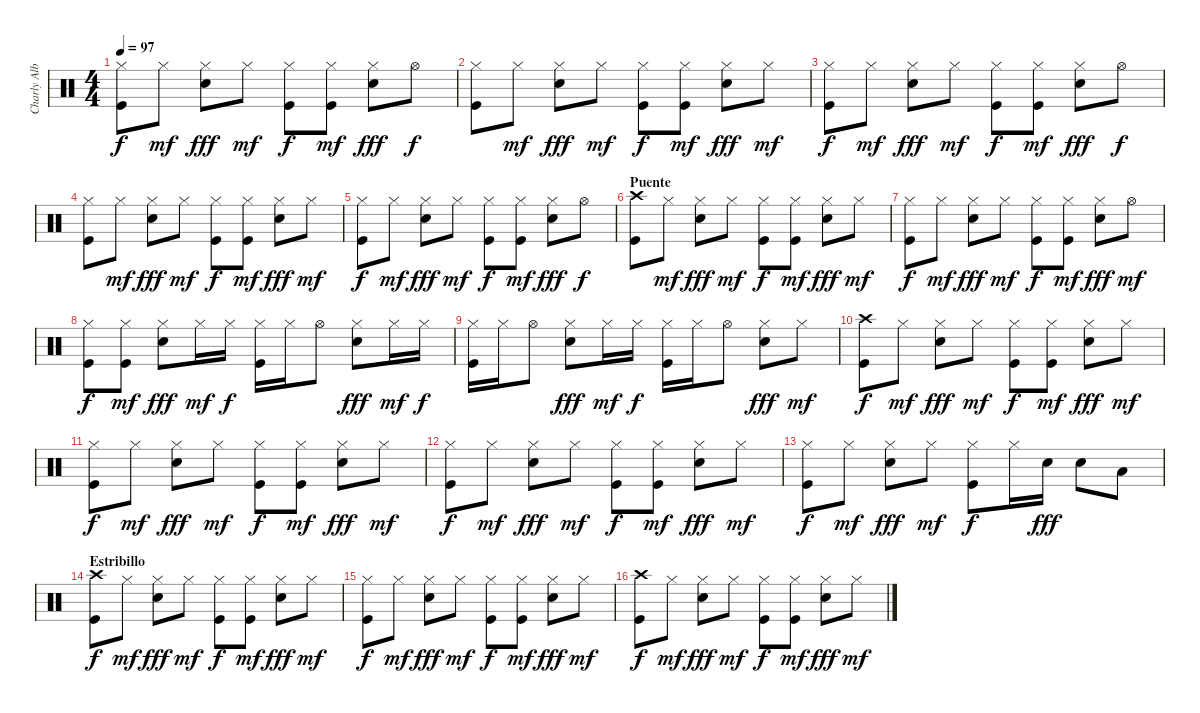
\track ("Charly Alberti" "Charly Alb") {instrument percussion}
\staff {score}
\articulation defaults
\ts (4 4)
\tempo 97
\clef neutral
\ks c
("Kick (hit)" "Hi-Hat (closed)").8{dy f} "Hi-Hat (closed)".8{dy mf} ("Snare (hit) 2" "Hi-Hat (closed)").8{dy fff} "Hi-Hat (closed)".8{dy mf} ("Kick (hit)" "Hi-Hat (closed)").8{dy f} ("Kick (hit)" "Hi-Hat (closed)").8{dy mf} ("Snare (hit) 2" "Hi-Hat (closed)").8{dy fff} "Hi-Hat (open)".8{dy f} |
("Kick (hit)" "Hi-Hat (closed)").8 "Hi-Hat (closed)".8{dy mf} ("Snare (hit) 2" "Hi-Hat (closed)").8{dy fff} "Hi-Hat (closed)".8{dy mf} ("Kick (hit)" "Hi-Hat (closed)").8{dy f} ("Kick (hit)" "Hi-Hat (closed)").8{dy mf} ("Snare (hit) 2" "Hi-Hat (closed)").8{dy fff} "Hi-Hat (closed)".8{dy mf} |
("Kick (hit)" "Hi-Hat (closed)").8{dy f} "Hi-Hat (closed)".8{dy mf} ("Snare (hit) 2" "Hi-Hat (closed)").8{dy fff} "Hi-Hat (closed)".8{dy mf} ("Kick (hit)" "Hi-Hat (closed)").8{dy f} ("Kick (hit)" "Hi-Hat (closed)").8{dy mf} ("Snare (hit) 2" "Hi-Hat (closed)").8{dy fff} "Hi-Hat (open)".8{dy f} |
("Kick (hit)" "Hi-Hat (closed)").8 "Hi-Hat (closed)".8{dy mf} ("Snare (hit) 2" "Hi-Hat (closed)").8{dy fff} "Hi-Hat (closed)".8{dy mf} ("Kick (hit)" "Hi-Hat (closed)").8{dy f} ("Kick (hit)" "Hi-Hat (closed)").8{dy mf} ("Snare (hit) 2" "Hi-Hat (closed)").8{dy fff} "Hi-Hat (closed)".8{dy mf} |
("Kick (hit)" "Hi-Hat (closed)").8{dy f} "Hi-Hat (closed)".8{dy mf} ("Snare (hit) 2" "Hi-Hat (closed)").8{dy fff} "Hi-Hat (closed)".8{dy mf} ("Kick (hit)" "Hi-Hat (closed)").8{dy f} ("Kick (hit)" "Hi-Hat (closed)").8{dy mf} ("Snare (hit) 2" "Hi-Hat (closed)").8{dy fff} "Hi-Hat (open)".8{dy f} |
\section ("" "Puente")
("Kick (hit)" "Crash high (hit)").8 "Hi-Hat (closed)".8{dy mf} ("Snare (hit) 2" "Hi-Hat (closed)").8{dy fff} "Hi-Hat (closed)".8{dy mf} ("Kick (hit)" "Hi-Hat (closed)").8{dy f} ("Kick (hit)" "Hi-Hat (closed)").8{dy mf} ("Snare (hit) 2" "Hi-Hat (closed)").8{dy fff} "Hi-Hat (closed)".8{dy mf} |
("Kick (hit)" "Hi-Hat (closed)").8{dy f} "Hi-Hat (closed)".8{dy mf} ("Snare (hit) 2" "Hi-Hat (closed)").8{dy fff} "Hi-Hat (closed)".8{dy mf} ("Kick (hit)" "Hi-Hat (closed)").8{dy f} ("Kick (hit)" "Hi-Hat (closed)").8{dy mf} ("Snare (hit) 2" "Hi-Hat (closed)").8{dy fff} "Hi-Hat (open)".8{dy mf} |
("Kick (hit)" "Hi-Hat (closed)").8{dy f} ("Kick (hit)" "Hi-Hat (closed)").8{dy mf} ("Snare (hit) 2" "Hi-Hat (closed)").8{dy fff} "Hi-Hat (closed)".16{dy mf} "Hi-Hat (closed)".16{dy f} ("Kick (hit)" "Hi-Hat (closed)").16 "Hi-Hat (closed)".16 "Hi-Hat (open)".8 ("Snare (hit) 2" "Hi-Hat (closed)").8{dy fff} "Hi-Hat (closed)".16{dy mf} "Hi-Hat (closed)".16{dy f} |
("Kick (hit)" "Hi-Hat (closed)").16 "Hi-Hat (closed)".16 "Hi-Hat (open)".8 ("Snare (hit) 2" "Hi-Hat (closed)").8{dy fff} "Hi-Hat (closed)".16{dy mf} "Hi-Hat (closed)".16{dy f} ("Kick (hit)" "Hi-Hat (closed)").16 "Hi-Hat (closed)".16 "Hi-Hat (open)".8 ("Snare (hit) 2" "Hi-Hat (closed)").8{dy fff} "Hi-Hat (closed)".8{dy mf} |
("Kick (hit)" "Crash high (hit)").8{dy f} "Hi-Hat (closed)".8{dy mf} ("Snare (hit) 2" "Hi-Hat (closed)").8{dy fff} "Hi-Hat (closed)".8{dy mf} ("Kick (hit)" "Hi-Hat (closed)").8{dy f} ("Kick (hit)" "Hi-Hat (closed)").8{dy mf} ("Snare (hit) 2" "Hi-Hat (closed)").8{dy fff} "Hi-Hat (closed)".8{dy mf} |
("Kick (hit)" "Hi-Hat (closed)").8{dy f} "Hi-Hat (closed)".8{dy mf} ("Snare (hit) 2" "Hi-Hat (closed)").8{dy fff} "Hi-Hat (closed)".8{dy mf} ("Kick (hit)" "Hi-Hat (closed)").8{dy f} ("Kick (hit)" "Hi-Hat (closed)").8{dy mf} ("Snare (hit) 2" "Hi-Hat (closed)").8{dy fff} "Hi-Hat (closed)".8{dy mf} |
("Kick (hit)" "Hi-Hat (closed)").8{dy f} "Hi-Hat (closed)".8{dy mf} ("Snare (hit) 2" "Hi-Hat (closed)").8{dy fff} "Hi-Hat (closed)".8{dy mf} ("Kick (hit)" "Hi-Hat (closed)").8{dy f} ("Kick (hit)" "Hi-Hat (closed)").8{dy mf} ("Snare (hit) 2" "Hi-Hat (closed)").8{dy fff} "Hi-Hat (closed)".8{dy mf} |
("Kick (hit)" "Hi-Hat (closed)").8{dy f} "Hi-Hat (closed)".8{dy mf} ("Snare (hit) 2" "Hi-Hat (closed)").8{dy fff} "Hi-Hat (closed)".8{dy mf} ("Kick (hit)" "Hi-Hat (closed)").8{dy f} "Hi-Hat (closed)".16 "Snare (hit) 2".16{dy fff} "Snare (hit) 2".8 "Low Tom (hit)".8 |
\section ("" "Estribillo")
("Kick (hit)" "Crash high (hit)").8{dy f} "Hi-Hat (closed)".8{dy mf} ("Snare (hit) 2" "Hi-Hat (closed)").8{dy fff} "Hi-Hat (closed)".8{dy mf} ("Kick (hit)" "Hi-Hat (closed)").8{dy f} ("Kick (hit)" "Hi-Hat (closed)").8{dy mf} ("Snare (hit) 2" "Hi-Hat (closed)").8{dy fff} "Hi-Hat (closed)".8{dy mf} |
("Kick (hit)" "Hi-Hat (closed)").8{dy f} "Hi-Hat (closed)".8{dy mf} ("Snare (hit) 2" "Hi-Hat (closed)").8{dy fff} "Hi-Hat (closed)".8{dy mf} ("Kick (hit)" "Hi-Hat (closed)").8{dy f} ("Kick (hit)" "Hi-Hat (closed)").8{dy mf} ("Snare (hit) 2" "Hi-Hat (closed)").8{dy fff} "Hi-Hat (closed)".8{dy mf} |
("Kick (hit)" "Crash high (hit)").8{dy f} "Hi-Hat (closed)".8{dy mf} ("Snare (hit) 2" "Hi-Hat (closed)").8{dy fff} "Hi-Hat (closed)".8{dy mf} ("Kick (hit)" "Hi-Hat (closed)").8{dy f} ("Kick (hit)" "Hi-Hat (closed)").8{dy mf} ("Snare (hit) 2" "Hi-Hat (closed)").8{dy fff} "Hi-Hat (closed)".8{dy mf}
